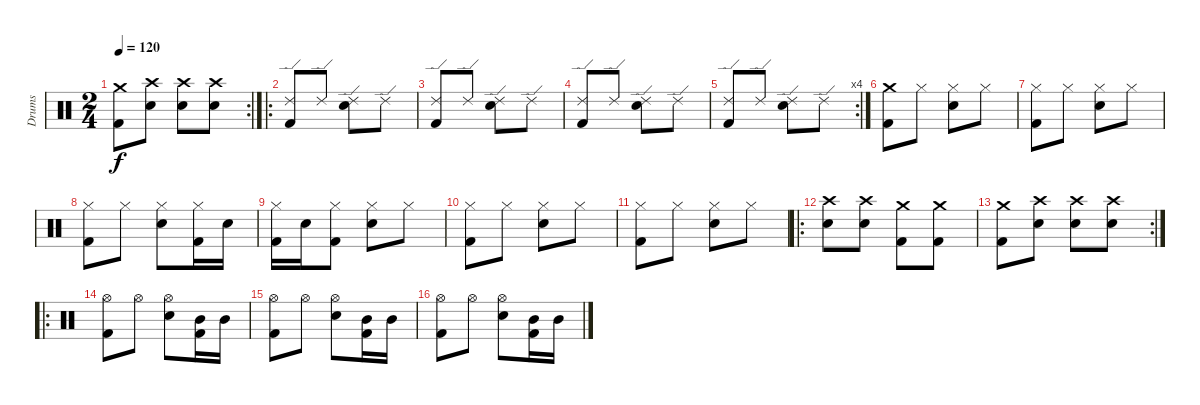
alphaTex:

\track ("Drums" "Drums") {instrument percussion}
\staff {score}
\articulation defaults
\rc 2
\ts (2 4)
\tempo 120
\clef neutral
\ks c
("Kick (hit) 2" "Crash medium (hit)").8{dy f} ("Electric Snare (hit)" "Crash high (hit)").8 ("Electric Snare (hit)" "Crash high (hit)").8 ("Electric Snare (hit)" "Crash high (hit)").8 |
\ro
("Kick (hit) 2" "Ride (edge) 2").8 "Ride (edge) 2".8 ("Electric Snare (hit)" "Ride (edge) 2").8 "Ride (edge) 2".8 |
("Kick (hit) 2" "Ride (edge) 2").8 "Ride (edge) 2".8 ("Electric Snare (hit)" "Ride (edge) 2").8 "Ride (edge) 2".8 |
("Kick (hit) 2" "Ride (edge) 2").8 "Ride (edge) 2".8 ("Electric Snare (hit)" "Ride (edge) 2").8 "Ride (edge) 2".8 |
\rc 4
("Kick (hit) 2" "Ride (edge) 2").8 "Ride (edge) 2".8 ("Electric Snare (hit)" "Ride (edge) 2").8 "Ride (edge) 2".8 |
("Kick (hit) 2" "Crash medium (hit)").8 "Hi-Hat (closed)".8 ("Electric Snare (hit)" "Hi-Hat (closed)").8 "Hi-Hat (closed)".8 |
("Kick (hit) 2" "Hi-Hat (closed)").8 "Hi-Hat (closed)".8 ("Electric Snare (hit)" "Hi-Hat (closed)").8 "Hi-Hat (closed)".8 |
("Kick (hit) 2" "Hi-Hat (closed)").8 "Hi-Hat (closed)".8 ("Electric Snare (hit)" "Hi-Hat (closed)").8 ("Hi-Hat (closed)" "Kick (hit) 2").16 "Electric Snare (hit)".16 |
("Kick (hit) 2" "Hi-Hat (closed)").16 "Electric Snare (hit)".16 ("Kick (hit) 2" "Hi-Hat (closed)").8 ("Electric Snare (hit)" "Hi-Hat (closed)").8 "Hi-Hat (closed)".8 |
("Kick (hit) 2" "Hi-Hat (closed)").8 "Hi-Hat (closed)".8 ("Electric Snare (hit)" "Hi-Hat (closed)").8 "Hi-Hat (closed)".8 |
("Kick (hit) 2" "Hi-Hat (closed)").8 "Hi-Hat (closed)".8 ("Electric Snare (hit)" "Hi-Hat (closed)").8 "Hi-Hat (closed)".8 |
\ro
("Electric Snare (hit)" "Crash high (hit)").8 ("Electric Snare (hit)" "Crash high (hit)").8 ("Kick (hit) 2" "Crash medium (hit)").8 ("Kick (hit) 2" "Crash medium (hit)").8 |
\rc 2
("Kick (hit) 2" "Crash medium (hit)").8 ("Electric Snare (hit)" "Crash high (hit)").8 ("Electric Snare (hit)" "Crash high (hit)").8 ("Electric Snare (hit)" "Crash high (hit)").8 |
\ro
("Kick (hit) 2" "Hi-Hat (open)").8 "Hi-Hat (open)".8 ("Electric Snare (hit)" "Hi-Hat (open)").8 ("Mid Tom (hit)" "Kick (hit) 2").16 "Mid Tom (hit)".16 |
("Kick (hit) 2" "Hi-Hat (open)").8 "Hi-Hat (open)".8 ("Electric Snare (hit)" "Hi-Hat (open)").8 ("Mid Tom (hit)" "Kick (hit) 2").16 "Mid Tom (hit)".16 |
("Kick (hit) 2" "Hi-Hat (open)").8 "Hi-Hat (open)".8 ("Electric Snare (hit)" "Hi-Hat (open)").8 ("Mid Tom (hit)" "Kick (hit) 2").16 "Mid Tom (hit)".16
